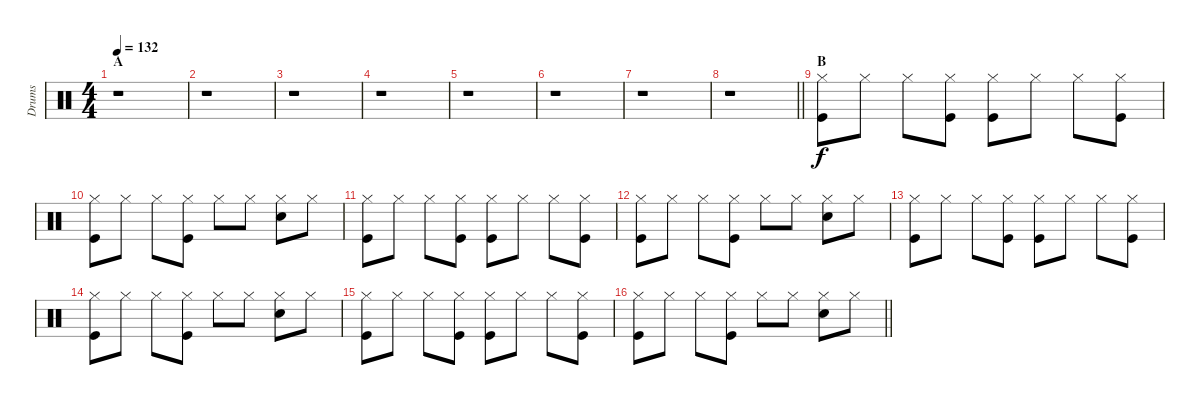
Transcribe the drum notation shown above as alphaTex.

\track ("Drums" "Drums") {instrument percussion}
\staff {score}
\articulation defaults
\ts (4 4)
\section ("" "A")
\tempo 132
\clef neutral
\ks c
r.1{dy f} |
r.1 |
r.1 |
r.1 |
r.1 |
r.1 |
r.1 |
\barLineRight lightlight
r.1 |
\section ("" "B")
("Hi-Hat (closed)" "Kick (hit)").8 "Hi-Hat (closed)".8 "Hi-Hat (closed)".8 ("Hi-Hat (closed)" "Kick (hit)").8 ("Hi-Hat (closed)" "Kick (hit)").8 "Hi-Hat (closed)".8 "Hi-Hat (closed)".8 ("Hi-Hat (closed)" "Kick (hit)").8 |
("Hi-Hat (closed)" "Kick (hit)").8 "Hi-Hat (closed)".8 "Hi-Hat (closed)".8 ("Hi-Hat (closed)" "Kick (hit)").8 "Hi-Hat (closed)".8 "Hi-Hat (closed)".8 ("Hi-Hat (closed)" "Electric Snare (hit)").8 "Hi-Hat (closed)".8 |
("Hi-Hat (closed)" "Kick (hit)").8 "Hi-Hat (closed)".8 "Hi-Hat (closed)".8 ("Hi-Hat (closed)" "Kick (hit)").8 ("Hi-Hat (closed)" "Kick (hit)").8 "Hi-Hat (closed)".8 "Hi-Hat (closed)".8 ("Hi-Hat (closed)" "Kick (hit)").8 |
("Hi-Hat (closed)" "Kick (hit)").8 "Hi-Hat (closed)".8 "Hi-Hat (closed)".8 ("Hi-Hat (closed)" "Kick (hit)").8 "Hi-Hat (closed)".8 "Hi-Hat (closed)".8 ("Hi-Hat (closed)" "Electric Snare (hit)").8 "Hi-Hat (closed)".8 |
("Hi-Hat (closed)" "Kick (hit)").8 "Hi-Hat (closed)".8 "Hi-Hat (closed)".8 ("Hi-Hat (closed)" "Kick (hit)").8 ("Hi-Hat (closed)" "Kick (hit)").8 "Hi-Hat (closed)".8 "Hi-Hat (closed)".8 ("Hi-Hat (closed)" "Kick (hit)").8 |
("Hi-Hat (closed)" "Kick (hit)").8 "Hi-Hat (closed)".8 "Hi-Hat (closed)".8 ("Hi-Hat (closed)" "Kick (hit)").8 "Hi-Hat (closed)".8 "Hi-Hat (closed)".8 ("Hi-Hat (closed)" "Electric Snare (hit)").8 "Hi-Hat (closed)".8 |
("Hi-Hat (closed)" "Kick (hit)").8 "Hi-Hat (closed)".8 "Hi-Hat (closed)".8 ("Hi-Hat (closed)" "Kick (hit)").8 ("Hi-Hat (closed)" "Kick (hit)").8 "Hi-Hat (closed)".8 "Hi-Hat (closed)".8 ("Hi-Hat (closed)" "Kick (hit)").8 |
\barLineRight lightlight
("Hi-Hat (closed)" "Kick (hit)").8 "Hi-Hat (closed)".8 "Hi-Hat (closed)".8 ("Hi-Hat (closed)" "Kick (hit)").8 "Hi-Hat (closed)".8 "Hi-Hat (closed)".8 ("Hi-Hat (closed)" "Electric Snare (hit)").8 "Hi-Hat (closed)".8
